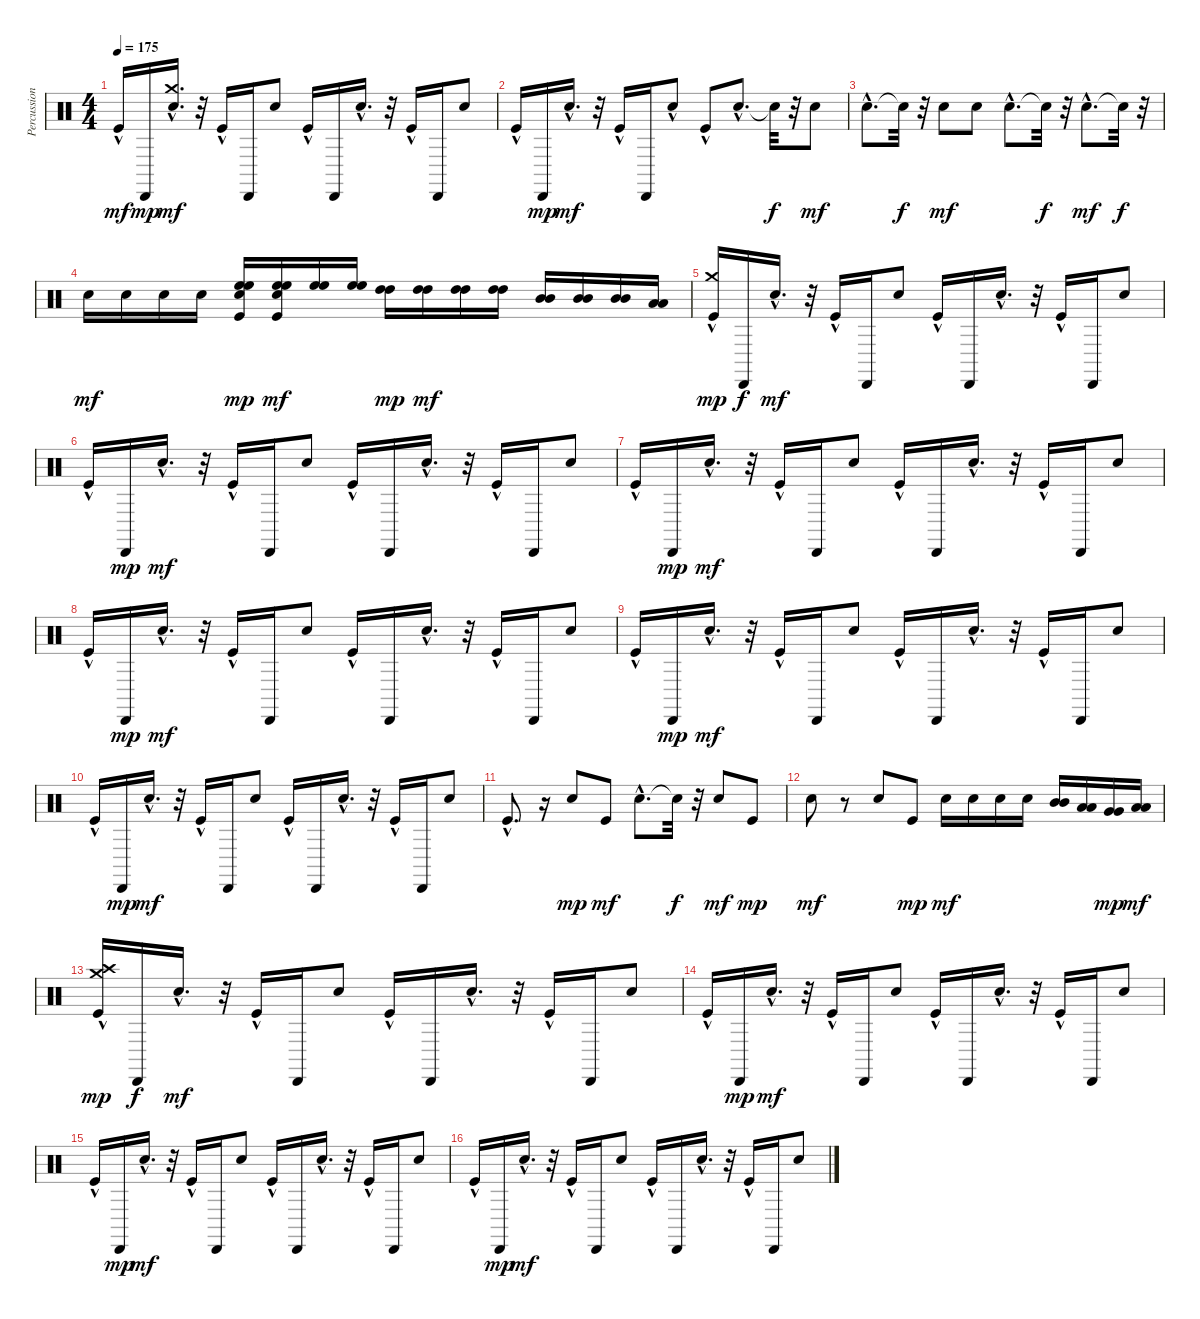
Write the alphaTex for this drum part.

\track ("Percussion" "Percussion") {instrument percussion}
\staff {score}
\articulation defaults
\ts (4 4)
\tempo 175
\clef neutral
\ks c "Kick (hit)"{hac}.16{dy mf} "Cabasa (hit)".16{dy mp}
("Crash medium (hit)"{hac} "Snare (hit) 2"{hac}).16{d dy mf} r.32 "Kick (hit)"{hac}.16 "Cabasa (hit)".16 "Snare (hit) 2".8 "Kick (hit)"{hac}.16 "Cabasa (hit)".16 "Snare (hit) 2"{hac}.16{d} r.32 "Kick (hit)"{hac}.16 "Cabasa (hit)".16 "Snare (hit) 2".8 |
"Kick (hit)"{hac}.16 "Cabasa (hit)".16{dy mp} "Snare (hit) 2"{hac}.16{d dy mf} r.32 "Kick (hit)"{hac}.16 "Cabasa (hit)".16 "Snare (hit) 2"{hac}.8 "Kick (hit)"{hac}.8 "Snare (hit) 2"{hac}.8{d} "Snare (hit)"{t}.32{dy f} r.32 "Snare (hit) 2".8{dy mf} |
"Snare (hit) 2"{hac}.8{d} "Snare (hit)"{t}.32{dy f} r.32 "Snare (hit) 2".8{dy mf} "Snare (hit) 2".8 "Snare (hit) 2"{hac}.8{d} "Snare (hit)"{t}.32{dy f} r.32 "Snare (hit) 2"{hac}.8{d dy mf} "Snare (hit)"{t}.32{dy f} r.32 |
"Snare (hit) 2".16{dy mf} "Snare (hit) 2".16 "Snare (hit) 2".16 "Snare (hit) 2".16 ("Snare (hit) 2" "High Floor Tom (hit)" "Kick (hit)" "High Floor Tom (hit)").16{dy mp} ("Snare (hit) 2" "High Floor Tom (hit)" "Kick (hit)" "High Floor Tom (hit)").16{dy mf} ("High Floor Tom (hit)" "High Floor Tom (hit)").16 ("High Floor Tom (hit)" "High Floor Tom (hit)").16 ("High Tom (hit)" "High Tom (hit)").16{dy mp} ("High Tom (hit)" "High Tom (hit)").16{dy mf} ("High Tom (hit)" "High Tom (hit)").16 ("High Tom (hit)" "High Tom (hit)").16 ("Mid Tom (hit)" "Mid Tom (hit)").16 ("Mid Tom (hit)" "Mid Tom (hit)").16 ("Mid Tom (hit)" "Mid Tom (hit)").16 ("Low Tom (hit)" "Low Tom (hit)").16 |
("Crash medium (hit)" "Kick (hit)"{hac}).16{dy mp} "Cabasa (hit)".16{dy f} "Snare (hit) 2"{hac}.16{d dy mf} r.32 "Kick (hit)"{hac}.16 "Cabasa (hit)".16 "Snare (hit) 2".8 "Kick (hit)"{hac}.16 "Cabasa (hit)".16 "Snare (hit) 2"{hac}.16{d} r.32 "Kick (hit)"{hac}.16 "Cabasa (hit)".16 "Snare (hit) 2".8 |
"Kick (hit)"{hac}.16 "Cabasa (hit)".16{dy mp} "Snare (hit) 2"{hac}.16{d dy mf} r.32 "Kick (hit)"{hac}.16 "Cabasa (hit)".16 "Snare (hit) 2".8 "Kick (hit)"{hac}.16 "Cabasa (hit)".16 "Snare (hit) 2"{hac}.16{d} r.32 "Kick (hit)"{hac}.16 "Cabasa (hit)".16 "Snare (hit) 2".8 |
"Kick (hit)"{hac}.16 "Cabasa (hit)".16{dy mp} "Snare (hit) 2"{hac}.16{d dy mf} r.32 "Kick (hit)"{hac}.16 "Cabasa (hit)".16 "Snare (hit) 2".8 "Kick (hit)"{hac}.16 "Cabasa (hit)".16 "Snare (hit) 2"{hac}.16{d} r.32 "Kick (hit)"{hac}.16 "Cabasa (hit)".16 "Snare (hit) 2".8 |
"Kick (hit)"{hac}.16 "Cabasa (hit)".16{dy mp} "Snare (hit) 2"{hac}.16{d dy mf} r.32 "Kick (hit)"{hac}.16 "Cabasa (hit)".16 "Snare (hit) 2".8 "Kick (hit)"{hac}.16 "Cabasa (hit)".16 "Snare (hit) 2"{hac}.16{d} r.32 "Kick (hit)"{hac}.16 "Cabasa (hit)".16 "Snare (hit) 2".8 |
"Kick (hit)"{hac}.16 "Cabasa (hit)".16{dy mp} "Snare (hit) 2"{hac}.16{d dy mf} r.32 "Kick (hit)"{hac}.16 "Cabasa (hit)".16 "Snare (hit) 2".8 "Kick (hit)"{hac}.16 "Cabasa (hit)".16 "Snare (hit) 2"{hac}.16{d} r.32 "Kick (hit)"{hac}.16 "Cabasa (hit)".16 "Snare (hit) 2".8 |
"Kick (hit)"{hac}.16 "Cabasa (hit)".16{dy mp} "Snare (hit) 2"{hac}.16{d dy mf} r.32 "Kick (hit)"{hac}.16 "Cabasa (hit)".16 "Snare (hit) 2".8 "Kick (hit)"{hac}.16 "Cabasa (hit)".16 "Snare (hit) 2"{hac}.16{d} r.32 "Kick (hit)"{hac}.16 "Cabasa (hit)".16 "Snare (hit) 2".8 |
"Kick (hit)"{hac}.8{d} r.16 "Snare (hit) 2".8{dy mp} "Kick (hit)".8{dy mf} "Snare (hit) 2"{hac}.8{d} "Snare (hit)"{t}.32{dy f} r.32 "Snare (hit) 2".8{dy mf} "Kick (hit)".8{dy mp} |
"Snare (hit) 2".8{dy mf} r.8 "Snare (hit) 2".8 "Kick (hit)".8{dy mp} "Snare (hit) 2".16{dy mf} "Snare (hit) 2".16 "Snare (hit) 2".16 "Snare (hit) 2".16 ("Mid Tom (hit)" "Mid Tom (hit)").16 ("Low Tom (hit)" "Low Tom (hit)").16 ("Very Low Tom (hit)" "Very Low Tom (hit)").16{dy mp} ("Low Floor Tom (hit)" "Low Floor Tom (hit)").16{dy mf} |
("Crash medium (hit)" "Kick (hit)"{hac} "Crash high (hit)"{hac}).16{dy mp} "Cabasa (hit)".16{dy f} "Snare (hit) 2"{hac}.16{d dy mf} r.32 "Kick (hit)"{hac}.16 "Cabasa (hit)".16 "Snare (hit) 2".8 "Kick (hit)"{hac}.16 "Cabasa (hit)".16 "Snare (hit) 2"{hac}.16{d} r.32 "Kick (hit)"{hac}.16 "Cabasa (hit)".16 "Snare (hit) 2".8 |
"Kick (hit)"{hac}.16 "Cabasa (hit)".16{dy mp} "Snare (hit) 2"{hac}.16{d dy mf} r.32 "Kick (hit)"{hac}.16 "Cabasa (hit)".16 "Snare (hit) 2".8 "Kick (hit)"{hac}.16 "Cabasa (hit)".16 "Snare (hit) 2"{hac}.16{d} r.32 "Kick (hit)"{hac}.16 "Cabasa (hit)".16 "Snare (hit) 2".8 |
"Kick (hit)"{hac}.16 "Cabasa (hit)".16{dy mp} "Snare (hit) 2"{hac}.16{d dy mf} r.32 "Kick (hit)"{hac}.16 "Cabasa (hit)".16 "Snare (hit) 2".8 "Kick (hit)"{hac}.16 "Cabasa (hit)".16 "Snare (hit) 2"{hac}.16{d} r.32 "Kick (hit)"{hac}.16 "Cabasa (hit)".16 "Snare (hit) 2".8 |
"Kick (hit)"{hac}.16 "Cabasa (hit)".16{dy mp} "Snare (hit) 2"{hac}.16{d dy mf} r.32 "Kick (hit)"{hac}.16 "Cabasa (hit)".16 "Snare (hit) 2".8 "Kick (hit)"{hac}.16 "Cabasa (hit)".16 "Snare (hit) 2"{hac}.16{d} r.32 "Kick (hit)"{hac}.16 "Cabasa (hit)".16 "Snare (hit) 2".8
